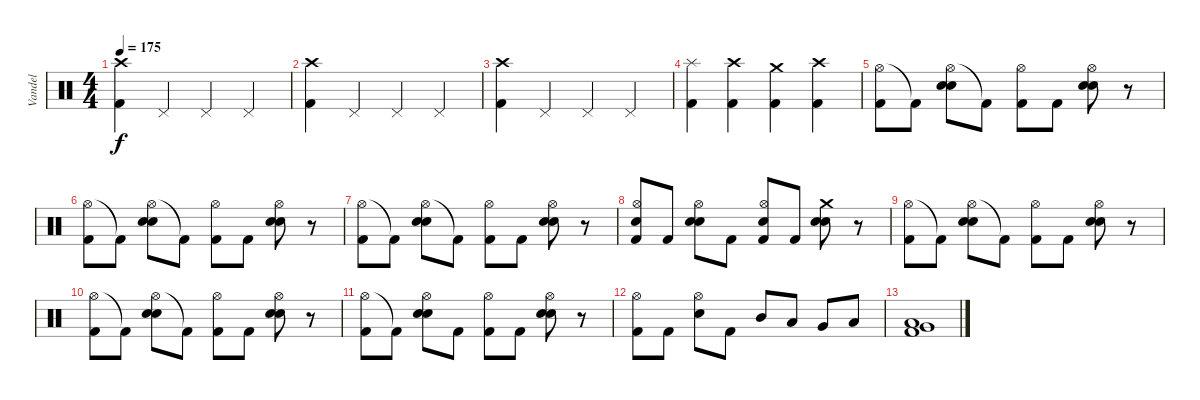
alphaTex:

\track ("Vandel" "Vandel") {instrument percussion}
\staff {score}
\articulation defaults
\ts (4 4)
\tempo 175
\clef neutral
\ks c
("Crash high (hit)" "Kick (hit) 2").4{dy f} "Pedal Hi-Hat (hit)".4 "Pedal Hi-Hat (hit)".4 "Pedal Hi-Hat (hit)".4 |
("Crash high (hit)" "Kick (hit) 2").4 "Pedal Hi-Hat (hit)".4 "Pedal Hi-Hat (hit)".4 "Pedal Hi-Hat (hit)".4 |
("Crash high (hit)" "Kick (hit) 2").4 "Pedal Hi-Hat (hit)".4 "Pedal Hi-Hat (hit)".4 "Pedal Hi-Hat (hit)".4 |
("Splash (hit)" "Kick (hit) 2").4 ("Crash high (hit)" "Kick (hit) 2").4 ("Crash medium (hit)" "Kick (hit) 2").4 ("Crash high (hit)" "Kick (hit) 2").4 |
("Hi-Hat (open)" "Kick (hit) 2").8 "Kick (hit) 2"{t}.8 ("Hi-Hat (open)" "Electric Snare (hit)" "Electric Snare (hit)").8 "Kick (hit) 2"{t}.8 ("Hi-Hat (open)" "Kick (hit) 2").8 "Kick (hit) 2".8 ("Hi-Hat (open)" "Electric Snare (hit)" "Electric Snare (hit)").8 r.8 |
("Hi-Hat (open)" "Kick (hit) 2").8 "Kick (hit) 2"{t}.8 ("Hi-Hat (open)" "Electric Snare (hit)" "Electric Snare (hit)").8 "Kick (hit) 2"{t}.8 ("Hi-Hat (open)" "Kick (hit) 2").8 "Kick (hit) 2".8 ("Hi-Hat (open)" "Electric Snare (hit)" "Electric Snare (hit)").8 r.8 |
("Hi-Hat (open)" "Kick (hit) 2").8 "Kick (hit) 2"{t}.8 ("Hi-Hat (open)" "Electric Snare (hit)" "Electric Snare (hit)").8 "Kick (hit) 2"{t}.8 ("Hi-Hat (open)" "Kick (hit) 2").8 "Kick (hit) 2".8 ("Hi-Hat (open)" "Electric Snare (hit)" "Electric Snare (hit)").8 r.8 |
("Hi-Hat (open)" "Electric Snare (hit)" "Kick (hit) 2").8 "Kick (hit) 2".8 ("Hi-Hat (open)" "Electric Snare (hit)" "Electric Snare (hit)").8 "Kick (hit) 2".8 ("Hi-Hat (open)" "Electric Snare (hit)" "Kick (hit) 2").8 "Kick (hit) 2".8 ("Crash medium (hit)" "Electric Snare (hit)" "Electric Snare (hit)").8 r.8 |
("Hi-Hat (open)" "Kick (hit) 2").8 "Kick (hit) 2"{t}.8 ("Hi-Hat (open)" "Electric Snare (hit)" "Electric Snare (hit)").8 "Kick (hit) 2"{t}.8 ("Hi-Hat (open)" "Kick (hit) 2").8 "Kick (hit) 2".8 ("Hi-Hat (open)" "Electric Snare (hit)" "Electric Snare (hit)").8 r.8 |
("Hi-Hat (open)" "Kick (hit) 2").8 "Kick (hit) 2"{t}.8 ("Hi-Hat (open)" "Electric Snare (hit)" "Electric Snare (hit)").8 "Kick (hit) 2"{t}.8 ("Hi-Hat (open)" "Kick (hit) 2").8 "Kick (hit) 2".8 ("Hi-Hat (open)" "Electric Snare (hit)" "Electric Snare (hit)").8 r.8 |
("Hi-Hat (open)" "Kick (hit) 2").8 "Kick (hit) 2"{t}.8 ("Hi-Hat (open)" "Electric Snare (hit)" "Electric Snare (hit)").8 "Kick (hit) 2".8 ("Hi-Hat (open)" "Kick (hit) 2").8 "Kick (hit) 2".8 ("Hi-Hat (open)" "Electric Snare (hit)" "Electric Snare (hit)").8 r.8 |
("Hi-Hat (open)" "Kick (hit) 2").8 "Kick (hit) 2".8 ("Hi-Hat (open)" "Electric Snare (hit)").8 "Kick (hit) 2".8 "Mid Tom (hit)".8 "Low Tom (hit)".8 "Very Low Tom (hit)".8 "Low Floor Tom (hit)".8 |
("Kick (hit) 2" "Very Low Tom (hit)" "Low Floor Tom (hit)").1
